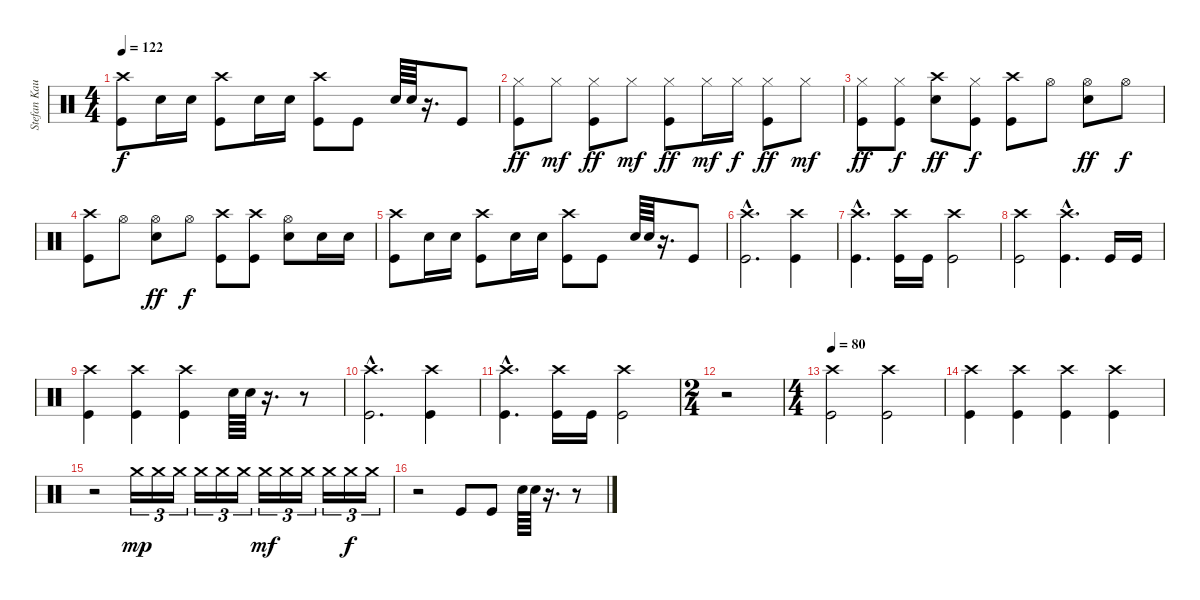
\track ("Stefan Kaufmann" "Stefan Kau") {instrument percussion}
\staff {score}
\articulation defaults
\ts (4 4)
\tempo 122
\clef neutral
\ks c
("Crash high (hit)" "Kick (hit)").8{dy f} "Snare (hit) 2".16 "Snare (hit) 2".16 ("Crash high (hit)" "Kick (hit)").8 "Snare (hit) 2".16 "Snare (hit) 2".16 ("Crash high (hit)" "Kick (hit)").8 "Kick (hit)".8 "Snare (hit) 2".64 "Snare (hit) 2".64 r.16{d} "Kick (hit)".8 |
("Hi-Hat (closed)" "Kick (hit)").8{dy ff} "Hi-Hat (closed)".8{dy mf} ("Hi-Hat (closed)" "Kick (hit)").8{dy ff} "Hi-Hat (closed)".8{dy mf} ("Hi-Hat (closed)" "Kick (hit)").8{dy ff} "Hi-Hat (closed)".16{dy mf} "Hi-Hat (closed)".16{dy f} ("Hi-Hat (closed)" "Kick (hit)").8{dy ff} "Hi-Hat (closed)".8{dy mf} |
("Hi-Hat (closed)" "Kick (hit)").8{dy ff} ("Hi-Hat (closed)" "Kick (hit)").8{dy f} ("Crash high (hit)" "Snare (hit) 2").8{dy ff} ("Hi-Hat (closed)" "Kick (hit)").8{dy f} ("Crash high (hit)" "Kick (hit)").8 "Hi-Hat (open)".8 ("Hi-Hat (open)" "Snare (hit) 2").8{dy ff} "Hi-Hat (open)".8{dy f} |
("Crash high (hit)" "Kick (hit)").8 "Hi-Hat (open)".8 ("Hi-Hat (open)" "Snare (hit) 2").8{dy ff} "Hi-Hat (open)".8{dy f} ("Crash high (hit)" "Kick (hit)").8 ("Crash high (hit)" "Kick (hit)").8 ("Hi-Hat (open)" "Snare (hit) 2").8 "Snare (hit) 2".16 "Snare (hit) 2".16 |
("Crash high (hit)" "Kick (hit)").8 "Snare (hit) 2".16 "Snare (hit) 2".16 ("Crash high (hit)" "Kick (hit)").8 "Snare (hit) 2".16 "Snare (hit) 2".16 ("Crash high (hit)" "Kick (hit)").8 "Kick (hit)".8 "Snare (hit) 2".64 "Snare (hit) 2".64 r.16{d} "Kick (hit)".8 |
("Crash high (hit)"{hac} "Kick (hit)"{hac}).2{d} ("Crash high (hit)" "Kick (hit)").4 |
("Crash high (hit)"{hac} "Kick (hit)"{hac}).4{d} ("Crash high (hit)" "Kick (hit)").16 "Kick (hit)".16 ("Crash high (hit)" "Kick (hit)").2 |
("Crash high (hit)" "Kick (hit)").2 ("Crash high (hit)"{hac} "Kick (hit)"{hac}).4{d} "Kick (hit)".16 "Kick (hit)".16 |
("Crash high (hit)" "Kick (hit)").4 ("Crash high (hit)" "Kick (hit)").4 ("Crash high (hit)" "Kick (hit)").4 "Snare (hit) 2".64 "Snare (hit) 2".64 r.16{d} r.8 |
("Crash high (hit)"{hac} "Kick (hit)"{hac}).2{d} ("Crash high (hit)" "Kick (hit)").4 |
("Crash high (hit)"{hac} "Kick (hit)"{hac}).4{d} ("Crash high (hit)" "Kick (hit)").16 "Kick (hit)".16 ("Crash high (hit)" "Kick (hit)").2 |
\ts (2 4)
r.2 |
\ts (4 4)
\tempo 80
("Crash high (hit)" "Kick (hit)").2 ("Crash high (hit)" "Kick (hit)").2 |
("Crash high (hit)" "Kick (hit)").4 ("Crash high (hit)" "Kick (hit)").4 ("Crash high (hit)" "Kick (hit)").4 ("Crash high (hit)" "Kick (hit)").4 |
r.2 "Crash medium (hit)".16{tu (3 2) dy mp} "Crash medium (hit)".16{tu (3 2)} "Crash medium (hit)".16{tu (3 2)} "Crash medium (hit)".16{tu (3 2)} "Crash medium (hit)".16{tu (3 2)} "Crash medium (hit)".16{tu (3 2)} "Crash medium (hit)".16{tu (3 2) dy mf} "Crash medium (hit)".16{tu (3 2)} "Crash medium (hit)".16{tu (3 2)} "Crash medium (hit)".16{tu (3 2)} "Crash medium (hit)".16{tu (3 2) dy f} "Crash medium (hit)".16{tu (3 2)} |
r.2 "Kick (hit)".8 "Kick (hit)".8 "Snare (hit) 2".64 "Snare (hit) 2".64 r.16{d} r.8
